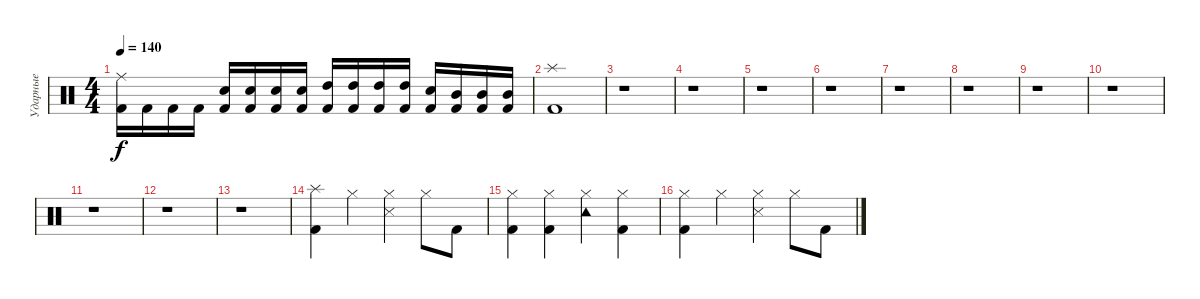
\track ("Ударные" "Ударные") {instrument percussion}
\staff {score}
\articulation defaults
\ts (4 4)
\tempo 140
\clef neutral
\ks c
("Kick (hit) 2" "Ride (middle)").16{dy f} "Kick (hit) 2".16 "Kick (hit) 2".16 "Kick (hit) 2".16 ("Kick (hit) 2" "Electric Snare (hit)").16 ("Kick (hit) 2" "Electric Snare (hit)").16 ("Kick (hit) 2" "Electric Snare (hit)").16 ("Kick (hit) 2" "Electric Snare (hit)").16 ("Kick (hit) 2" "High Tom (hit)").16 ("Kick (hit) 2" "High Tom (hit)").16 ("Kick (hit) 2" "High Tom (hit)").16 ("Kick (hit) 2" "High Tom (hit)").16 ("Kick (hit) 2" "Electric Snare (hit)").16 ("Kick (hit) 2" "Mid Tom (hit)").16 ("Kick (hit) 2" "Mid Tom (hit)").16 ("Kick (hit) 2" "Mid Tom (hit)").16 |
("Kick (hit) 2" "Splash (hit)").1 |
r.1 |
r.1 |
r.1 |
r.1 |
r.1 |
r.1 |
r.1 |
r.1 |
r.1 |
r.1 |
r.1 |
("Splash (hit)" "Kick (hit) 2").4 "Hi-Hat (closed)".4 ("Snare (side stick) 3" "Hi-Hat (closed)").4 "Hi-Hat (closed)".8 "Kick (hit) 2".8 |
("Kick (hit) 2" "Hi-Hat (closed)").4 ("Kick (hit) 2" "Hi-Hat (closed)").4 ("Tambourine (hit)" "Hi-Hat (closed)").4 ("Kick (hit) 2" "Hi-Hat (closed)").4 |
("Hi-Hat (closed)" "Kick (hit) 2").4 "Hi-Hat (closed)".4 ("Snare (side stick) 3" "Hi-Hat (closed)").4 "Hi-Hat (closed)".8 "Kick (hit) 2".8
